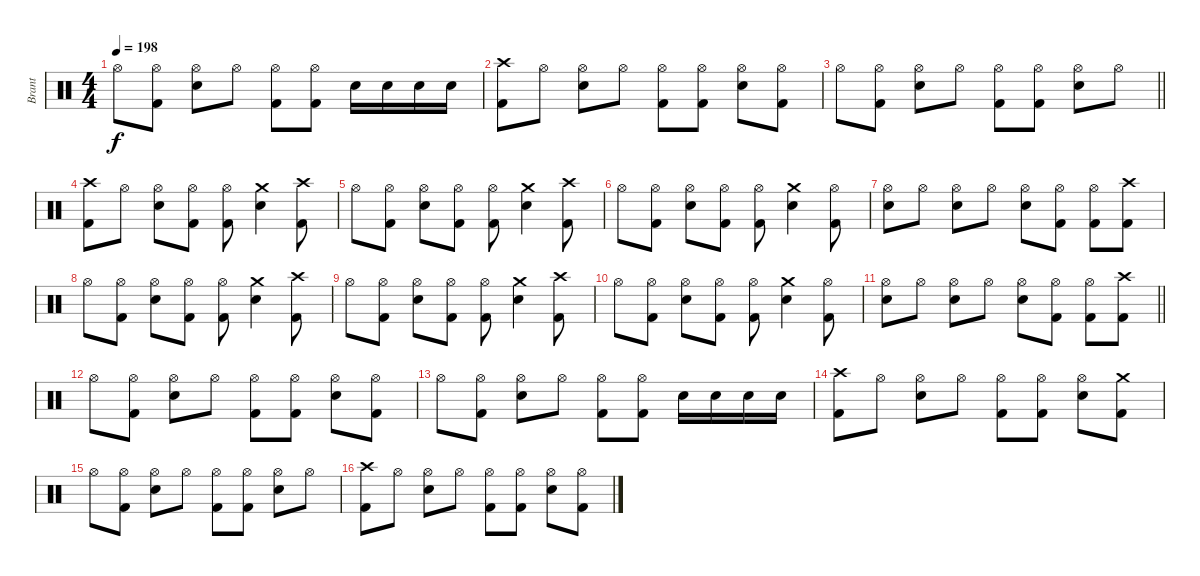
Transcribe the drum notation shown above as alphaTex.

\track ("Brant" "Brant") {instrument percussion}
\staff {score}
\articulation defaults
\ts (4 4)
\tempo 198
\clef neutral
\ks c "Hi-Hat (open)".8{dy f}
("Hi-Hat (open)" "Kick (hit) 2").8 ("Hi-Hat (open)" "Electric Snare (hit)").8 "Hi-Hat (open)".8 ("Hi-Hat (open)" "Kick (hit) 2").8 ("Hi-Hat (open)" "Kick (hit) 2").8 "Electric Snare (hit)".16 "Electric Snare (hit)".16 "Electric Snare (hit)".16 "Electric Snare (hit)".16 |
("Crash high (hit)" "Kick (hit) 2").8 "Hi-Hat (open)".8 ("Hi-Hat (open)" "Electric Snare (hit)").8 "Hi-Hat (open)".8 ("Hi-Hat (open)" "Kick (hit) 2").8 ("Hi-Hat (open)" "Kick (hit) 2").8 ("Hi-Hat (open)" "Electric Snare (hit)").8 ("Hi-Hat (open)" "Kick (hit) 2").8 |
\barLineRight lightlight "Hi-Hat (open)".8
("Hi-Hat (open)" "Kick (hit) 2").8 ("Hi-Hat (open)" "Electric Snare (hit)").8 "Hi-Hat (open)".8 ("Hi-Hat (open)" "Kick (hit) 2").8 ("Hi-Hat (open)" "Kick (hit) 2").8 ("Hi-Hat (open)" "Electric Snare (hit)").8 "Hi-Hat (open)".8 |
\section ("" "")
("Crash high (hit)" "Kick (hit) 2").8 "Hi-Hat (open)".8 ("Hi-Hat (open)" "Electric Snare (hit)").8 ("Hi-Hat (open)" "Kick (hit) 2").8 ("Hi-Hat (open)" "Kick (hit) 2").8 ("Crash medium (hit)" "Electric Snare (hit)").4 ("Crash high (hit)" "Kick (hit) 2").8 |
"Hi-Hat (open)".8 ("Hi-Hat (open)" "Kick (hit) 2").8 ("Hi-Hat (open)" "Electric Snare (hit)").8 ("Hi-Hat (open)" "Kick (hit) 2").8 ("Hi-Hat (open)" "Kick (hit) 2").8 ("Crash medium (hit)" "Electric Snare (hit)").4 ("Crash high (hit)" "Kick (hit) 2").8 |
"Hi-Hat (open)".8 ("Hi-Hat (open)" "Kick (hit) 2").8 ("Hi-Hat (open)" "Electric Snare (hit)").8 ("Hi-Hat (open)" "Kick (hit) 2").8 ("Hi-Hat (open)" "Kick (hit) 2").8 ("Crash medium (hit)" "Electric Snare (hit)").4 ("Hi-Hat (open)" "Kick (hit) 2").8 |
("Hi-Hat (open)" "Electric Snare (hit)").8 "Hi-Hat (open)".8 ("Hi-Hat (open)" "Electric Snare (hit)").8 "Hi-Hat (open)".8 ("Hi-Hat (open)" "Electric Snare (hit)").8 ("Hi-Hat (open)" "Kick (hit) 2").8 ("Hi-Hat (open)" "Kick (hit) 2").8 ("Crash high (hit)" "Kick (hit) 2").8 |
"Hi-Hat (open)".8 ("Hi-Hat (open)" "Kick (hit) 2").8 ("Hi-Hat (open)" "Electric Snare (hit)").8 ("Hi-Hat (open)" "Kick (hit) 2").8 ("Hi-Hat (open)" "Kick (hit) 2").8 ("Crash medium (hit)" "Electric Snare (hit)").4 ("Crash high (hit)" "Kick (hit) 2").8 |
"Hi-Hat (open)".8 ("Hi-Hat (open)" "Kick (hit) 2").8 ("Hi-Hat (open)" "Electric Snare (hit)").8 ("Hi-Hat (open)" "Kick (hit) 2").8 ("Hi-Hat (open)" "Kick (hit) 2").8 ("Crash medium (hit)" "Electric Snare (hit)").4 ("Crash high (hit)" "Kick (hit) 2").8 |
"Hi-Hat (open)".8 ("Hi-Hat (open)" "Kick (hit) 2").8 ("Hi-Hat (open)" "Electric Snare (hit)").8 ("Hi-Hat (open)" "Kick (hit) 2").8 ("Hi-Hat (open)" "Kick (hit) 2").8 ("Crash medium (hit)" "Electric Snare (hit)").4 ("Hi-Hat (open)" "Kick (hit) 2").8 |
\barLineRight lightlight
("Hi-Hat (open)" "Electric Snare (hit)").8 "Hi-Hat (open)".8 ("Hi-Hat (open)" "Electric Snare (hit)").8 "Hi-Hat (open)".8 ("Hi-Hat (open)" "Electric Snare (hit)").8 ("Hi-Hat (open)" "Kick (hit) 2").8 ("Hi-Hat (open)" "Kick (hit) 2").8 ("Crash high (hit)" "Kick (hit) 2").8 |
\section ("" "")
"Hi-Hat (open)".8 ("Hi-Hat (open)" "Kick (hit) 2").8 ("Hi-Hat (open)" "Electric Snare (hit)").8 "Hi-Hat (open)".8 ("Hi-Hat (open)" "Kick (hit) 2").8 ("Hi-Hat (open)" "Kick (hit) 2").8 ("Hi-Hat (open)" "Electric Snare (hit)").8 ("Hi-Hat (open)" "Kick (hit) 2").8 |
"Hi-Hat (open)".8 ("Hi-Hat (open)" "Kick (hit) 2").8 ("Hi-Hat (open)" "Electric Snare (hit)").8 "Hi-Hat (open)".8 ("Hi-Hat (open)" "Kick (hit) 2").8 ("Hi-Hat (open)" "Kick (hit) 2").8 "Electric Snare (hit)".16 "Electric Snare (hit)".16 "Electric Snare (hit)".16 "Electric Snare (hit)".16 |
("Crash high (hit)" "Kick (hit) 2").8 "Hi-Hat (open)".8 ("Hi-Hat (open)" "Electric Snare (hit)").8 "Hi-Hat (open)".8 ("Hi-Hat (open)" "Kick (hit) 2").8 ("Hi-Hat (open)" "Kick (hit) 2").8 ("Hi-Hat (open)" "Electric Snare (hit)").8 ("Crash medium (hit)" "Kick (hit) 2").8 |
"Hi-Hat (open)".8 ("Hi-Hat (open)" "Kick (hit) 2").8 ("Hi-Hat (open)" "Electric Snare (hit)").8 "Hi-Hat (open)".8 ("Hi-Hat (open)" "Kick (hit) 2").8 ("Hi-Hat (open)" "Kick (hit) 2").8 ("Hi-Hat (open)" "Electric Snare (hit)").8 "Hi-Hat (open)".8 |
("Crash high (hit)" "Kick (hit) 2").8 "Hi-Hat (open)".8 ("Hi-Hat (open)" "Electric Snare (hit)").8 "Hi-Hat (open)".8 ("Hi-Hat (open)" "Kick (hit) 2").8 ("Hi-Hat (open)" "Kick (hit) 2").8 ("Hi-Hat (open)" "Electric Snare (hit)").8 ("Hi-Hat (open)" "Kick (hit) 2").8
